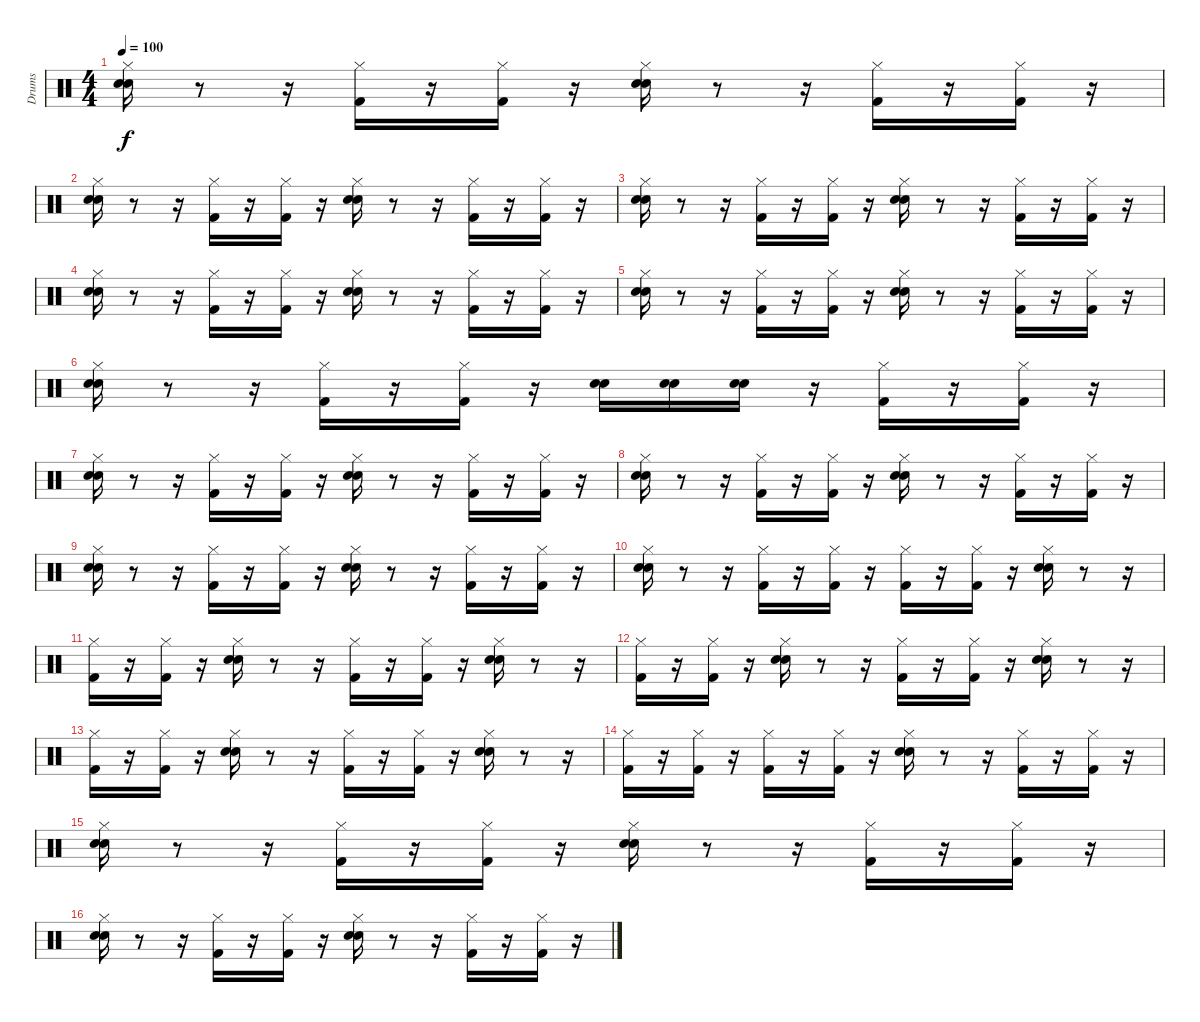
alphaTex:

\track ("Drums" "Drums") {instrument percussion}
\staff {score}
\articulation defaults
\ts (4 4)
\tempo 100
\clef neutral
\ks c
("Hi-Hat (closed)" "Snare (hit) 2" "Hand Clap (hit)").16{dy f} r.8 r.16 ("Hi-Hat (closed)" "Kick (hit) 2").16 r.16 ("Kick (hit) 2" "Hi-Hat (closed)").16 r.16 ("Hand Clap (hit)" "Hi-Hat (closed)" "Snare (hit) 2").16 r.8 r.16 ("Hi-Hat (closed)" "Kick (hit) 2").16 r.16 ("Kick (hit) 2" "Hi-Hat (closed)").16 r.16 |
("Snare (hit) 2" "Hand Clap (hit)" "Hi-Hat (closed)").16 r.8 r.16 ("Hi-Hat (closed)" "Kick (hit) 2").16 r.16 ("Kick (hit) 2" "Hi-Hat (closed)").16 r.16 ("Hand Clap (hit)" "Hi-Hat (closed)" "Snare (hit) 2").16 r.8 r.16 ("Hi-Hat (closed)" "Kick (hit) 2").16 r.16 ("Kick (hit) 2" "Hi-Hat (closed)").16 r.16 |
("Snare (hit) 2" "Hand Clap (hit)" "Hi-Hat (closed)").16 r.8 r.16 ("Kick (hit) 2" "Hi-Hat (closed)").16 r.16 ("Hi-Hat (closed)" "Kick (hit) 2").16 r.16 ("Hand Clap (hit)" "Snare (hit) 2" "Hi-Hat (closed)").16 r.8 r.16 ("Hi-Hat (closed)" "Kick (hit) 2").16 r.16 ("Hi-Hat (closed)" "Kick (hit) 2").16 r.16 |
("Hi-Hat (closed)" "Snare (hit) 2" "Hand Clap (hit)").16 r.8 r.16 ("Hi-Hat (closed)" "Kick (hit) 2").16 r.16 ("Kick (hit) 2" "Hi-Hat (closed)").16 r.16 ("Hi-Hat (closed)" "Snare (hit) 2" "Hand Clap (hit)").16 r.8 r.16 ("Hi-Hat (closed)" "Kick (hit) 2").16 r.16 ("Hi-Hat (closed)" "Kick (hit) 2").16 r.16 |
("Hand Clap (hit)" "Snare (hit) 2" "Hi-Hat (closed)").16 r.8 r.16 ("Hi-Hat (closed)" "Kick (hit) 2").16 r.16 ("Kick (hit) 2" "Hi-Hat (closed)").16 r.16 ("Snare (hit) 2" "Hand Clap (hit)" "Hi-Hat (closed)").16 r.8 r.16 ("Hi-Hat (closed)" "Kick (hit) 2").16 r.16 ("Kick (hit) 2" "Hi-Hat (closed)").16 r.16 |
("Hand Clap (hit)" "Hi-Hat (closed)" "Snare (hit) 2").16 r.8 r.16 ("Hi-Hat (closed)" "Kick (hit) 2").16 r.16 ("Kick (hit) 2" "Hi-Hat (closed)").16 r.16 ("Snare (hit) 2" "Hand Clap (hit)").16 ("Snare (hit)" "Snare (hit) 2").16 ("Snare (hit)" "Snare (hit) 2").16 r.16 ("Kick (hit) 2" "Hi-Hat (closed)").16 r.16 ("Hi-Hat (closed)" "Kick (hit) 2").16 r.16 |
("Snare (hit) 2" "Hand Clap (hit)" "Hi-Hat (closed)").16 r.8 r.16 ("Hi-Hat (closed)" "Kick (hit) 2").16 r.16 ("Hi-Hat (closed)" "Kick (hit) 2").16 r.16 ("Hi-Hat (closed)" "Snare (hit) 2" "Hand Clap (hit)").16 r.8 r.16 ("Kick (hit) 2" "Hi-Hat (closed)").16 r.16 ("Hi-Hat (closed)" "Kick (hit) 2").16 r.16 |
("Snare (hit) 2" "Hand Clap (hit)" "Hi-Hat (closed)").16 r.8 r.16 ("Hi-Hat (closed)" "Kick (hit) 2").16 r.16 ("Hi-Hat (closed)" "Kick (hit) 2").16 r.16 ("Hi-Hat (closed)" "Hand Clap (hit)" "Snare (hit) 2").16 r.8 r.16 ("Kick (hit) 2" "Hi-Hat (closed)").16 r.16 ("Hi-Hat (closed)" "Kick (hit) 2").16 r.16 |
("Snare (hit) 2" "Hi-Hat (closed)" "Hand Clap (hit)").16 r.8 r.16 ("Hi-Hat (closed)" "Kick (hit) 2").16 r.16 ("Hi-Hat (closed)" "Kick (hit) 2").16 r.16 ("Hand Clap (hit)" "Snare (hit) 2" "Hi-Hat (closed)").16 r.8 r.16 ("Hi-Hat (closed)" "Kick (hit) 2").16 r.16 ("Kick (hit) 2" "Hi-Hat (closed)").16 r.16 |
("Hi-Hat (closed)" "Snare (hit) 2" "Hand Clap (hit)").16 r.8 r.16 ("Hi-Hat (closed)" "Kick (hit) 2").16 r.16 ("Hi-Hat (closed)" "Kick (hit) 2").16 r.16 ("Hi-Hat (closed)" "Kick (hit) 2").16 r.16 ("Kick (hit) 2" "Hi-Hat (closed)").16 r.16 ("Snare (hit) 2" "Hi-Hat (closed)" "Hand Clap (hit)").16 r.8 r.16 |
("Hi-Hat (closed)" "Kick (hit) 2").16 r.16 ("Hi-Hat (closed)" "Kick (hit) 2").16 r.16 ("Hi-Hat (closed)" "Hand Clap (hit)" "Snare (hit) 2").16 r.8 r.16 ("Kick (hit) 2" "Hi-Hat (closed)").16 r.16 ("Hi-Hat (closed)" "Kick (hit) 2").16 r.16 ("Hand Clap (hit)" "Snare (hit) 2" "Hi-Hat (closed)").16 r.8 r.16 |
("Hi-Hat (closed)" "Kick (hit) 2").16 r.16 ("Hi-Hat (closed)" "Kick (hit) 2").16 r.16 ("Hand Clap (hit)" "Snare (hit) 2" "Hi-Hat (closed)").16 r.8 r.16 ("Kick (hit) 2" "Hi-Hat (closed)").16 r.16 ("Kick (hit) 2" "Hi-Hat (closed)").16 r.16 ("Hand Clap (hit)" "Snare (hit) 2" "Hi-Hat (closed)").16 r.8 r.16 |
("Hi-Hat (closed)" "Kick (hit) 2").16 r.16 ("Hi-Hat (closed)" "Kick (hit) 2").16 r.16 ("Hi-Hat (closed)" "Hand Clap (hit)" "Snare (hit) 2").16 r.8 r.16 ("Hi-Hat (closed)" "Kick (hit) 2").16 r.16 ("Hi-Hat (closed)" "Kick (hit) 2").16 r.16 ("Hi-Hat (closed)" "Snare (hit) 2" "Hand Clap (hit)").16 r.8 r.16 |
("Kick (hit) 2" "Hi-Hat (closed)").16 r.16 ("Hi-Hat (closed)" "Kick (hit) 2").16 r.16 ("Hi-Hat (closed)" "Kick (hit) 2").16 r.16 ("Hi-Hat (closed)" "Kick (hit) 2").16 r.16 ("Hi-Hat (closed)" "Hand Clap (hit)" "Snare (hit) 2").16 r.8 r.16 ("Kick (hit) 2" "Hi-Hat (closed)").16 r.16 ("Kick (hit) 2" "Hi-Hat (closed)").16 r.16 |
("Hand Clap (hit)" "Hi-Hat (closed)" "Snare (hit) 2").16 r.8 r.16 ("Kick (hit) 2" "Hi-Hat (closed)").16 r.16 ("Kick (hit) 2" "Hi-Hat (closed)").16 r.16 ("Hand Clap (hit)" "Hi-Hat (closed)" "Snare (hit) 2").16 r.8 r.16 ("Kick (hit) 2" "Hi-Hat (closed)").16 r.16 ("Hi-Hat (closed)" "Kick (hit) 2").16 r.16 |
("Hi-Hat (closed)" "Snare (hit) 2" "Hand Clap (hit)").16 r.8 r.16 ("Hi-Hat (closed)" "Kick (hit) 2").16 r.16 ("Hi-Hat (closed)" "Kick (hit) 2").16 r.16 ("Hand Clap (hit)" "Hi-Hat (closed)" "Snare (hit) 2").16 r.8 r.16 ("Hi-Hat (closed)" "Kick (hit) 2").16 r.16 ("Kick (hit) 2" "Hi-Hat (closed)").16 r.16
